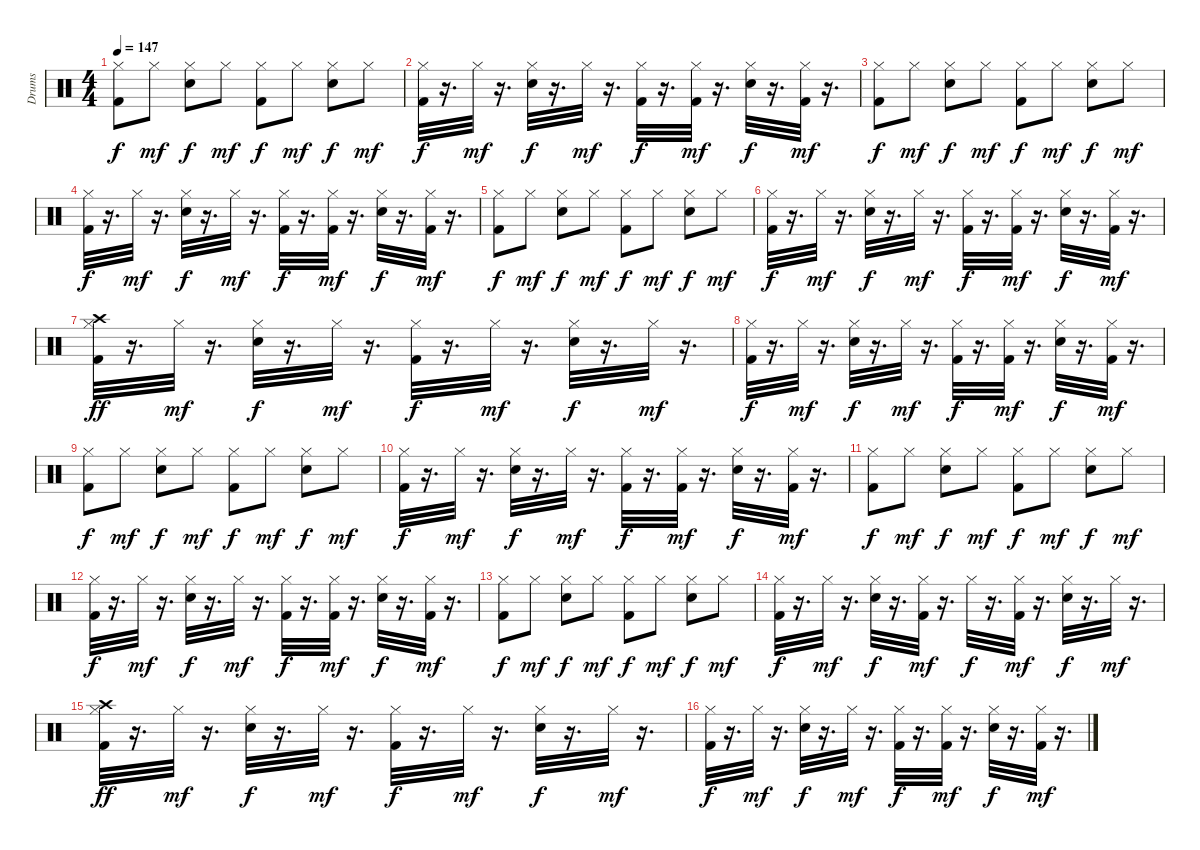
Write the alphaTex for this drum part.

\track ("Drums" "Drums") {instrument percussion}
\staff {score}
\articulation defaults
\ts (4 4)
\tempo 147
\clef neutral
\ks c
("Hi-Hat (closed)" "Kick (hit) 2").8{dy f} "Hi-Hat (closed)".8{dy mf} ("Hi-Hat (closed)" "Snare (hit) 2").8{dy f} "Hi-Hat (closed)".8{dy mf} ("Hi-Hat (closed)" "Kick (hit) 2").8{dy f} "Hi-Hat (closed)".8{dy mf} ("Hi-Hat (closed)" "Snare (hit) 2").8{dy f} "Hi-Hat (closed)".8{dy mf} |
("Kick (hit) 2" "Hi-Hat (closed)").32{dy f} r.16{d} "Hi-Hat (closed)".32{dy mf} r.16{d} ("Snare (hit) 2" "Hi-Hat (closed)").32{dy f} r.16{d} "Hi-Hat (closed)".32{dy mf} r.16{d} ("Kick (hit) 2" "Hi-Hat (closed)").32{dy f} r.16{d} ("Kick (hit) 2" "Hi-Hat (closed)").32{dy mf} r.16{d} ("Snare (hit) 2" "Hi-Hat (closed)").32{dy f} r.16{d} ("Kick (hit) 2" "Hi-Hat (closed)").32{dy mf} r.16{d} |
("Hi-Hat (closed)" "Kick (hit) 2").8{dy f} "Hi-Hat (closed)".8{dy mf} ("Hi-Hat (closed)" "Snare (hit) 2").8{dy f} "Hi-Hat (closed)".8{dy mf} ("Hi-Hat (closed)" "Kick (hit) 2").8{dy f} "Hi-Hat (closed)".8{dy mf} ("Hi-Hat (closed)" "Snare (hit) 2").8{dy f} "Hi-Hat (closed)".8{dy mf} |
("Kick (hit) 2" "Hi-Hat (closed)").32{dy f} r.16{d} "Hi-Hat (closed)".32{dy mf} r.16{d} ("Snare (hit) 2" "Hi-Hat (closed)").32{dy f} r.16{d} "Hi-Hat (closed)".32{dy mf} r.16{d} ("Kick (hit) 2" "Hi-Hat (closed)").32{dy f} r.16{d} ("Kick (hit) 2" "Hi-Hat (closed)").32{dy mf} r.16{d} ("Snare (hit) 2" "Hi-Hat (closed)").32{dy f} r.16{d} ("Kick (hit) 2" "Hi-Hat (closed)").32{dy mf} r.16{d} |
("Hi-Hat (closed)" "Kick (hit) 2").8{dy f} "Hi-Hat (closed)".8{dy mf} ("Hi-Hat (closed)" "Snare (hit) 2").8{dy f} "Hi-Hat (closed)".8{dy mf} ("Hi-Hat (closed)" "Kick (hit) 2").8{dy f} "Hi-Hat (closed)".8{dy mf} ("Hi-Hat (closed)" "Snare (hit) 2").8{dy f} "Hi-Hat (closed)".8{dy mf} |
("Kick (hit) 2" "Hi-Hat (closed)").32{dy f} r.16{d} "Hi-Hat (closed)".32{dy mf} r.16{d} ("Snare (hit) 2" "Hi-Hat (closed)").32{dy f} r.16{d} "Hi-Hat (closed)".32{dy mf} r.16{d} ("Kick (hit) 2" "Hi-Hat (closed)").32{dy f} r.16{d} ("Kick (hit) 2" "Hi-Hat (closed)").32{dy mf} r.16{d} ("Snare (hit) 2" "Hi-Hat (closed)").32{dy f} r.16{d} ("Kick (hit) 2" "Hi-Hat (closed)").32{dy mf} r.16{d} |
("Kick (hit) 2" "Hi-Hat (closed)" "Crash high (hit)").32{dy ff} r.16{d} "Hi-Hat (closed)".32{dy mf} r.16{d} ("Snare (hit) 2" "Hi-Hat (closed)").32{dy f} r.16{d} "Hi-Hat (closed)".32{dy mf} r.16{d} ("Kick (hit) 2" "Hi-Hat (closed)").32{dy f} r.16{d} "Hi-Hat (closed)".32{dy mf} r.16{d} ("Snare (hit) 2" "Hi-Hat (closed)").32{dy f} r.16{d} "Hi-Hat (closed)".32{dy mf} r.16{d} |
("Kick (hit) 2" "Hi-Hat (closed)").32{dy f} r.16{d} "Hi-Hat (closed)".32{dy mf} r.16{d} ("Snare (hit) 2" "Hi-Hat (closed)").32{dy f} r.16{d} "Hi-Hat (closed)".32{dy mf} r.16{d} ("Kick (hit) 2" "Hi-Hat (closed)").32{dy f} r.16{d} ("Kick (hit) 2" "Hi-Hat (closed)").32{dy mf} r.16{d} ("Snare (hit) 2" "Hi-Hat (closed)").32{dy f} r.16{d} ("Kick (hit) 2" "Hi-Hat (closed)").32{dy mf} r.16{d} |
("Hi-Hat (closed)" "Kick (hit) 2").8{dy f} "Hi-Hat (closed)".8{dy mf} ("Hi-Hat (closed)" "Snare (hit) 2").8{dy f} "Hi-Hat (closed)".8{dy mf} ("Hi-Hat (closed)" "Kick (hit) 2").8{dy f} "Hi-Hat (closed)".8{dy mf} ("Hi-Hat (closed)" "Snare (hit) 2").8{dy f} "Hi-Hat (closed)".8{dy mf} |
("Kick (hit) 2" "Hi-Hat (closed)").32{dy f} r.16{d} "Hi-Hat (closed)".32{dy mf} r.16{d} ("Snare (hit) 2" "Hi-Hat (closed)").32{dy f} r.16{d} "Hi-Hat (closed)".32{dy mf} r.16{d} ("Kick (hit) 2" "Hi-Hat (closed)").32{dy f} r.16{d} ("Kick (hit) 2" "Hi-Hat (closed)").32{dy mf} r.16{d} ("Snare (hit) 2" "Hi-Hat (closed)").32{dy f} r.16{d} ("Kick (hit) 2" "Hi-Hat (closed)").32{dy mf} r.16{d} |
("Hi-Hat (closed)" "Kick (hit) 2").8{dy f} "Hi-Hat (closed)".8{dy mf} ("Hi-Hat (closed)" "Snare (hit) 2").8{dy f} "Hi-Hat (closed)".8{dy mf} ("Hi-Hat (closed)" "Kick (hit) 2").8{dy f} "Hi-Hat (closed)".8{dy mf} ("Hi-Hat (closed)" "Snare (hit) 2").8{dy f} "Hi-Hat (closed)".8{dy mf} |
("Kick (hit) 2" "Hi-Hat (closed)").32{dy f} r.16{d} "Hi-Hat (closed)".32{dy mf} r.16{d} ("Snare (hit) 2" "Hi-Hat (closed)").32{dy f} r.16{d} "Hi-Hat (closed)".32{dy mf} r.16{d} ("Kick (hit) 2" "Hi-Hat (closed)").32{dy f} r.16{d} ("Kick (hit) 2" "Hi-Hat (closed)").32{dy mf} r.16{d} ("Snare (hit) 2" "Hi-Hat (closed)").32{dy f} r.16{d} ("Kick (hit) 2" "Hi-Hat (closed)").32{dy mf} r.16{d} |
("Hi-Hat (closed)" "Kick (hit) 2").8{dy f} "Hi-Hat (closed)".8{dy mf} ("Hi-Hat (closed)" "Snare (hit) 2").8{dy f} "Hi-Hat (closed)".8{dy mf} ("Hi-Hat (closed)" "Kick (hit) 2").8{dy f} "Hi-Hat (closed)".8{dy mf} ("Hi-Hat (closed)" "Snare (hit) 2").8{dy f} "Hi-Hat (closed)".8{dy mf} |
("Kick (hit) 2" "Hi-Hat (closed)").32{dy f} r.16{d} "Hi-Hat (closed)".32{dy mf} r.16{d} ("Snare (hit) 2" "Hi-Hat (closed)").32{dy f} r.16{d} ("Kick (hit) 2" "Hi-Hat (closed)").32{dy mf} r.16{d} "Hi-Hat (closed)".32{dy f} r.16{d} ("Kick (hit) 2" "Hi-Hat (closed)").32{dy mf} r.16{d} ("Snare (hit) 2" "Hi-Hat (closed)").32{dy f} r.16{d} "Hi-Hat (closed)".32{dy mf} r.16{d} |
("Kick (hit) 2" "Hi-Hat (closed)" "Crash high (hit)").32{dy ff} r.16{d} "Hi-Hat (closed)".32{dy mf} r.16{d} ("Snare (hit) 2" "Hi-Hat (closed)").32{dy f} r.16{d} "Hi-Hat (closed)".32{dy mf} r.16{d} ("Kick (hit) 2" "Hi-Hat (closed)").32{dy f} r.16{d} "Hi-Hat (closed)".32{dy mf} r.16{d} ("Snare (hit) 2" "Hi-Hat (closed)").32{dy f} r.16{d} "Hi-Hat (closed)".32{dy mf} r.16{d} |
("Kick (hit) 2" "Hi-Hat (closed)").32{dy f} r.16{d} "Hi-Hat (closed)".32{dy mf} r.16{d} ("Snare (hit) 2" "Hi-Hat (closed)").32{dy f} r.16{d} "Hi-Hat (closed)".32{dy mf} r.16{d} ("Kick (hit) 2" "Hi-Hat (closed)").32{dy f} r.16{d} ("Kick (hit) 2" "Hi-Hat (closed)").32{dy mf} r.16{d} ("Snare (hit) 2" "Hi-Hat (closed)").32{dy f} r.16{d} ("Kick (hit) 2" "Hi-Hat (closed)").32{dy mf} r.16{d}
